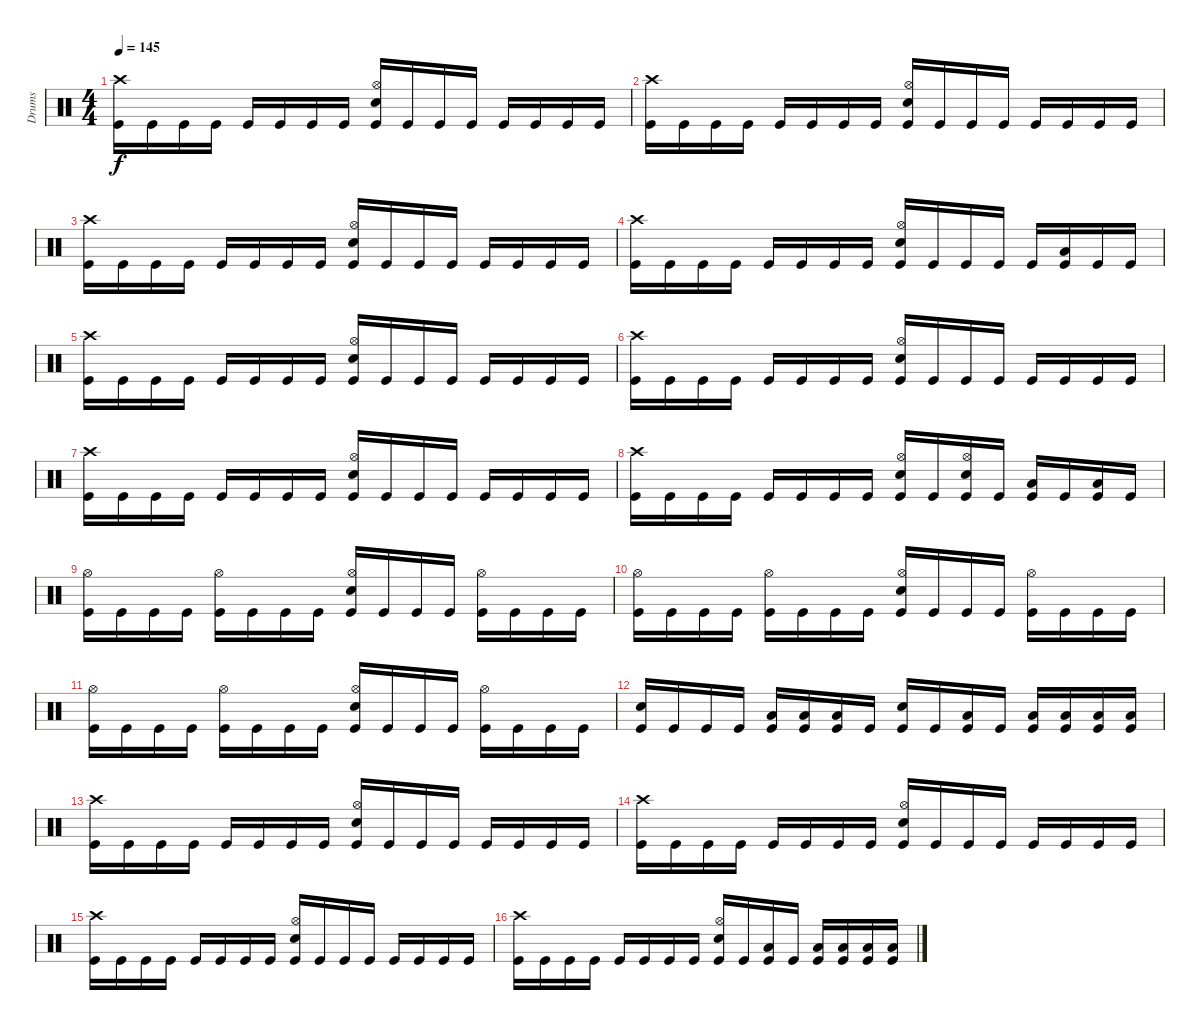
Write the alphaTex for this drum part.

\track ("Drums" "Drums") {instrument percussion}
\staff {score}
\articulation defaults
\ts (4 4)
\tempo 145
\clef neutral
\ks c
("Crash high (hit)" "Kick (hit)").16{dy f} "Kick (hit)".16 "Kick (hit)".16 "Kick (hit)".16 "Kick (hit)".16 "Kick (hit)".16 "Kick (hit)".16 "Kick (hit)".16 ("Hi-Hat (open)" "Electric Snare (hit)" "Kick (hit)").16 "Kick (hit)".16 "Kick (hit)".16 "Kick (hit)".16 "Kick (hit)".16 "Kick (hit)".16 "Kick (hit)".16 "Kick (hit)".16 |
("Crash high (hit)" "Kick (hit)").16 "Kick (hit)".16 "Kick (hit)".16 "Kick (hit)".16 "Kick (hit)".16 "Kick (hit)".16 "Kick (hit)".16 "Kick (hit)".16 ("Hi-Hat (open)" "Electric Snare (hit)" "Kick (hit)").16 "Kick (hit)".16 "Kick (hit)".16 "Kick (hit)".16 "Kick (hit)".16 "Kick (hit)".16 "Kick (hit)".16 "Kick (hit)".16 |
("Crash high (hit)" "Kick (hit)").16 "Kick (hit)".16 "Kick (hit)".16 "Kick (hit)".16 "Kick (hit)".16 "Kick (hit)".16 "Kick (hit)".16 "Kick (hit)".16 ("Hi-Hat (open)" "Electric Snare (hit)" "Kick (hit)").16 "Kick (hit)".16 "Kick (hit)".16 "Kick (hit)".16 "Kick (hit)".16 "Kick (hit)".16 "Kick (hit)".16 "Kick (hit)".16 |
("Crash high (hit)" "Kick (hit)").16 "Kick (hit)".16 "Kick (hit)".16 "Kick (hit)".16 "Kick (hit)".16 "Kick (hit)".16 "Kick (hit)".16 "Kick (hit)".16 ("Hi-Hat (open)" "Electric Snare (hit)" "Kick (hit)").16 "Kick (hit)".16 "Kick (hit)".16 "Kick (hit)".16 "Kick (hit)".16 ("Low Tom (hit)" "Kick (hit)").16 "Kick (hit)".16 "Kick (hit)".16 |
("Crash high (hit)" "Kick (hit)").16 "Kick (hit)".16 "Kick (hit)".16 "Kick (hit)".16 "Kick (hit)".16 "Kick (hit)".16 "Kick (hit)".16 "Kick (hit)".16 ("Hi-Hat (open)" "Electric Snare (hit)" "Kick (hit)").16 "Kick (hit)".16 "Kick (hit)".16 "Kick (hit)".16 "Kick (hit)".16 "Kick (hit)".16 "Kick (hit)".16 "Kick (hit)".16 |
("Crash high (hit)" "Kick (hit)").16 "Kick (hit)".16 "Kick (hit)".16 "Kick (hit)".16 "Kick (hit)".16 "Kick (hit)".16 "Kick (hit)".16 "Kick (hit)".16 ("Hi-Hat (open)" "Electric Snare (hit)" "Kick (hit)").16 "Kick (hit)".16 "Kick (hit)".16 "Kick (hit)".16 "Kick (hit)".16 "Kick (hit)".16 "Kick (hit)".16 "Kick (hit)".16 |
("Crash high (hit)" "Kick (hit)").16 "Kick (hit)".16 "Kick (hit)".16 "Kick (hit)".16 "Kick (hit)".16 "Kick (hit)".16 "Kick (hit)".16 "Kick (hit)".16 ("Hi-Hat (open)" "Electric Snare (hit)" "Kick (hit)").16 "Kick (hit)".16 "Kick (hit)".16 "Kick (hit)".16 "Kick (hit)".16 "Kick (hit)".16 "Kick (hit)".16 "Kick (hit)".16 |
("Crash high (hit)" "Kick (hit)").16 "Kick (hit)".16 "Kick (hit)".16 "Kick (hit)".16 "Kick (hit)".16 "Kick (hit)".16 "Kick (hit)".16 "Kick (hit)".16 ("Hi-Hat (open)" "Electric Snare (hit)" "Kick (hit)").16 "Kick (hit)".16 ("Hi-Hat (open)" "Electric Snare (hit)" "Kick (hit)").16 "Kick (hit)".16 ("Low Tom (hit)" "Kick (hit)").16 "Kick (hit)".16 ("Low Tom (hit)" "Kick (hit)").16 "Kick (hit)".16 |
("Hi-Hat (open)" "Kick (hit)").16 "Kick (hit)".16 "Kick (hit)".16 "Kick (hit)".16 ("Hi-Hat (open)" "Kick (hit)").16 "Kick (hit)".16 "Kick (hit)".16 "Kick (hit)".16 ("Hi-Hat (open)" "Electric Snare (hit)" "Kick (hit)").16 "Kick (hit)".16 "Kick (hit)".16 "Kick (hit)".16 ("Hi-Hat (open)" "Kick (hit)").16 "Kick (hit)".16 "Kick (hit)".16 "Kick (hit)".16 |
("Hi-Hat (open)" "Kick (hit)").16 "Kick (hit)".16 "Kick (hit)".16 "Kick (hit)".16 ("Hi-Hat (open)" "Kick (hit)").16 "Kick (hit)".16 "Kick (hit)".16 "Kick (hit)".16 ("Hi-Hat (open)" "Electric Snare (hit)" "Kick (hit)").16 "Kick (hit)".16 "Kick (hit)".16 "Kick (hit)".16 ("Hi-Hat (open)" "Kick (hit)").16 "Kick (hit)".16 "Kick (hit)".16 "Kick (hit)".16 |
("Hi-Hat (open)" "Kick (hit)").16 "Kick (hit)".16 "Kick (hit)".16 "Kick (hit)".16 ("Hi-Hat (open)" "Kick (hit)").16 "Kick (hit)".16 "Kick (hit)".16 "Kick (hit)".16 ("Hi-Hat (open)" "Electric Snare (hit)" "Kick (hit)").16 "Kick (hit)".16 "Kick (hit)".16 "Kick (hit)".16 ("Hi-Hat (open)" "Kick (hit)").16 "Kick (hit)".16 "Kick (hit)".16 "Kick (hit)".16 |
("Electric Snare (hit)" "Kick (hit)").16 "Kick (hit)".16 "Kick (hit)".16 "Kick (hit)".16 ("Low Tom (hit)" "Kick (hit)").16 ("Low Tom (hit)" "Kick (hit)").16 ("Low Tom (hit)" "Kick (hit)").16 "Kick (hit)".16 ("Electric Snare (hit)" "Kick (hit)").16 "Kick (hit)".16 ("Low Tom (hit)" "Kick (hit)").16 "Kick (hit)".16 ("Low Tom (hit)" "Kick (hit)").16 ("Low Tom (hit)" "Kick (hit)").16 ("Low Tom (hit)" "Kick (hit)").16 ("Low Tom (hit)" "Kick (hit)").16 |
("Crash high (hit)" "Kick (hit)").16 "Kick (hit)".16 "Kick (hit)".16 "Kick (hit)".16 "Kick (hit)".16 "Kick (hit)".16 "Kick (hit)".16 "Kick (hit)".16 ("Hi-Hat (open)" "Electric Snare (hit)" "Kick (hit)").16 "Kick (hit)".16 "Kick (hit)".16 "Kick (hit)".16 "Kick (hit)".16 "Kick (hit)".16 "Kick (hit)".16 "Kick (hit)".16 |
("Crash high (hit)" "Kick (hit)").16 "Kick (hit)".16 "Kick (hit)".16 "Kick (hit)".16 "Kick (hit)".16 "Kick (hit)".16 "Kick (hit)".16 "Kick (hit)".16 ("Hi-Hat (open)" "Electric Snare (hit)" "Kick (hit)").16 "Kick (hit)".16 "Kick (hit)".16 "Kick (hit)".16 "Kick (hit)".16 "Kick (hit)".16 "Kick (hit)".16 "Kick (hit)".16 |
("Crash high (hit)" "Kick (hit)").16 "Kick (hit)".16 "Kick (hit)".16 "Kick (hit)".16 "Kick (hit)".16 "Kick (hit)".16 "Kick (hit)".16 "Kick (hit)".16 ("Hi-Hat (open)" "Electric Snare (hit)" "Kick (hit)").16 "Kick (hit)".16 "Kick (hit)".16 "Kick (hit)".16 "Kick (hit)".16 "Kick (hit)".16 "Kick (hit)".16 "Kick (hit)".16 |
("Crash high (hit)" "Kick (hit)").16 "Kick (hit)".16 "Kick (hit)".16 "Kick (hit)".16 "Kick (hit)".16 "Kick (hit)".16 "Kick (hit)".16 "Kick (hit)".16 ("Hi-Hat (open)" "Electric Snare (hit)" "Kick (hit)").16 "Kick (hit)".16 ("Low Tom (hit)" "Kick (hit)").16 "Kick (hit)".16 ("Low Tom (hit)" "Kick (hit)").16 ("Low Tom (hit)" "Kick (hit)").16 ("Low Tom (hit)" "Kick (hit)").16 ("Low Tom (hit)" "Kick (hit)").16
